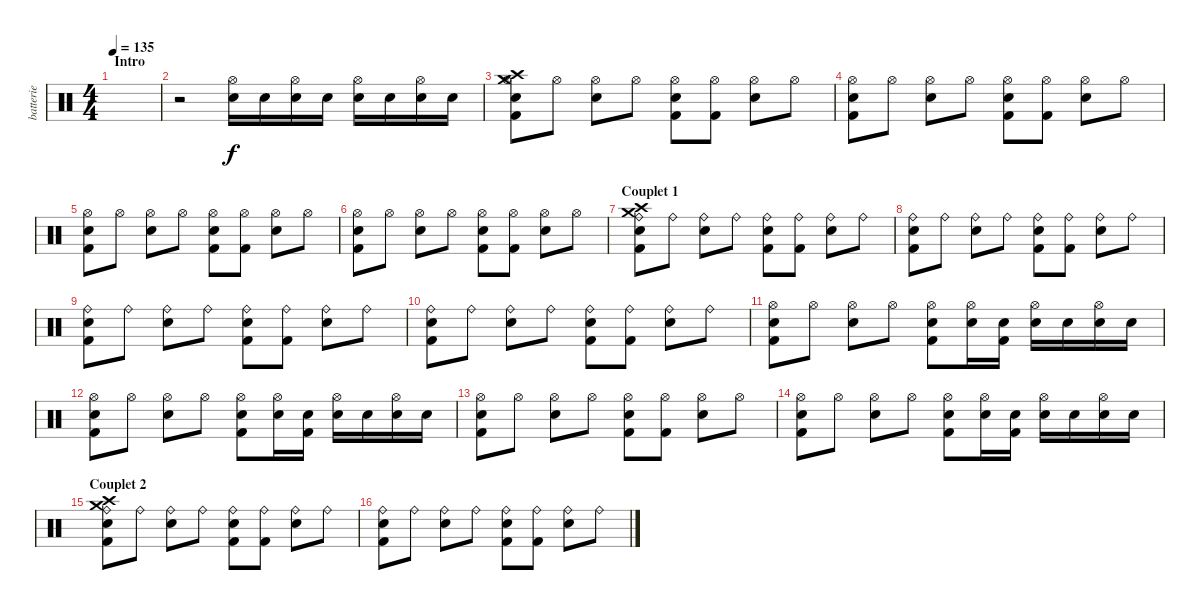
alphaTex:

\track ("batterie" "batterie") {instrument percussion}
\staff {score}
\articulation defaults
\ts (4 4)
\section ("" "Intro")
\tempo 135
\clef neutral
\ks c
|
r.2 ("Electric Snare (hit)" "Hi-Hat (open)").16 "Electric Snare (hit)".16 ("Electric Snare (hit)" "Hi-Hat (open)").16 "Electric Snare (hit)".16 ("Electric Snare (hit)" "Hi-Hat (open)").16 "Electric Snare (hit)".16 ("Electric Snare (hit)" "Hi-Hat (open)").16 "Electric Snare (hit)".16 |
("Kick (hit) 2" "Crash medium (hit)" "Electric Snare (hit)" "Crash high (hit)" "Hi-Hat (open)").8 "Hi-Hat (open)".8 ("Electric Snare (hit)" "Hi-Hat (open)").8 "Hi-Hat (open)".8 ("Kick (hit) 2" "Electric Snare (hit)" "Hi-Hat (open)").8 ("Kick (hit) 2" "Hi-Hat (open)").8 ("Electric Snare (hit)" "Hi-Hat (open)").8 "Hi-Hat (open)".8 |
("Kick (hit) 2" "Electric Snare (hit)" "Hi-Hat (open)").8 "Hi-Hat (open)".8 ("Electric Snare (hit)" "Hi-Hat (open)").8 "Hi-Hat (open)".8 ("Kick (hit) 2" "Electric Snare (hit)" "Hi-Hat (open)").8 ("Kick (hit) 2" "Hi-Hat (open)").8 ("Electric Snare (hit)" "Hi-Hat (open)").8 "Hi-Hat (open)".8 |
("Kick (hit) 2" "Electric Snare (hit)" "Hi-Hat (open)").8 "Hi-Hat (open)".8 ("Electric Snare (hit)" "Hi-Hat (open)").8 "Hi-Hat (open)".8 ("Kick (hit) 2" "Electric Snare (hit)" "Hi-Hat (open)").8 ("Kick (hit) 2" "Hi-Hat (open)").8 ("Electric Snare (hit)" "Hi-Hat (open)").8 "Hi-Hat (open)".8 |
("Kick (hit) 2" "Electric Snare (hit)" "Hi-Hat (open)").8 "Hi-Hat (open)".8 ("Electric Snare (hit)" "Hi-Hat (open)").8 "Hi-Hat (open)".8 ("Kick (hit) 2" "Electric Snare (hit)" "Hi-Hat (open)").8 ("Kick (hit) 2" "Hi-Hat (open)").8 ("Electric Snare (hit)" "Hi-Hat (open)").8 "Hi-Hat (open)".8 |
\section ("" "Couplet 1")
("Kick (hit) 2" "Crash medium (hit)" "Electric Snare (hit)" "Crash high (hit)" "Ride (bell)").8 "Ride (bell)".8 ("Electric Snare (hit)" "Ride (bell)").8 "Ride (bell)".8 ("Kick (hit) 2" "Electric Snare (hit)" "Ride (bell)").8 ("Kick (hit) 2" "Ride (bell)").8 ("Electric Snare (hit)" "Ride (bell)").8 "Ride (bell)".8 |
("Kick (hit) 2" "Electric Snare (hit)" "Ride (bell)").8 "Ride (bell)".8 ("Electric Snare (hit)" "Ride (bell)").8 "Ride (bell)".8 ("Kick (hit) 2" "Electric Snare (hit)" "Ride (bell)").8 ("Kick (hit) 2" "Ride (bell)").8 ("Electric Snare (hit)" "Ride (bell)").8 "Ride (bell)".8 |
("Kick (hit) 2" "Electric Snare (hit)" "Ride (bell)").8 "Ride (bell)".8 ("Electric Snare (hit)" "Ride (bell)").8 "Ride (bell)".8 ("Kick (hit) 2" "Electric Snare (hit)" "Ride (bell)").8 ("Kick (hit) 2" "Ride (bell)").8 ("Electric Snare (hit)" "Ride (bell)").8 "Ride (bell)".8 |
("Kick (hit) 2" "Electric Snare (hit)" "Ride (bell)").8 "Ride (bell)".8 ("Electric Snare (hit)" "Ride (bell)").8 "Ride (bell)".8 ("Kick (hit) 2" "Electric Snare (hit)" "Ride (bell)").8 ("Kick (hit) 2" "Ride (bell)").8 ("Electric Snare (hit)" "Ride (bell)").8 "Ride (bell)".8 |
("Kick (hit) 2" "Electric Snare (hit)" "Hi-Hat (open)").8 "Hi-Hat (open)".8 ("Electric Snare (hit)" "Hi-Hat (open)").8 "Hi-Hat (open)".8 ("Kick (hit) 2" "Electric Snare (hit)" "Hi-Hat (open)").8 ("Electric Snare (hit)" "Hi-Hat (open)").16 ("Kick (hit) 2" "Electric Snare (hit)").16 ("Electric Snare (hit)" "Hi-Hat (open)").16 "Electric Snare (hit)".16 ("Electric Snare (hit)" "Hi-Hat (open)").16 "Electric Snare (hit)".16 |
("Kick (hit) 2" "Electric Snare (hit)" "Hi-Hat (open)").8 "Hi-Hat (open)".8 ("Electric Snare (hit)" "Hi-Hat (open)").8 "Hi-Hat (open)".8 ("Kick (hit) 2" "Electric Snare (hit)" "Hi-Hat (open)").8 ("Electric Snare (hit)" "Hi-Hat (open)").16 ("Kick (hit) 2" "Electric Snare (hit)").16 ("Electric Snare (hit)" "Hi-Hat (open)").16 "Electric Snare (hit)".16 ("Electric Snare (hit)" "Hi-Hat (open)").16 "Electric Snare (hit)".16 |
("Kick (hit) 2" "Electric Snare (hit)" "Hi-Hat (open)").8 "Hi-Hat (open)".8 ("Electric Snare (hit)" "Hi-Hat (open)").8 "Hi-Hat (open)".8 ("Kick (hit) 2" "Electric Snare (hit)" "Hi-Hat (open)").8 ("Kick (hit) 2" "Hi-Hat (open)").8 ("Electric Snare (hit)" "Hi-Hat (open)").8 "Hi-Hat (open)".8 |
("Kick (hit) 2" "Electric Snare (hit)" "Hi-Hat (open)").8 "Hi-Hat (open)".8 ("Electric Snare (hit)" "Hi-Hat (open)").8 "Hi-Hat (open)".8 ("Kick (hit) 2" "Electric Snare (hit)" "Hi-Hat (open)").8 ("Electric Snare (hit)" "Hi-Hat (open)").16 ("Kick (hit) 2" "Electric Snare (hit)").16 ("Electric Snare (hit)" "Hi-Hat (open)").16 "Electric Snare (hit)".16 ("Electric Snare (hit)" "Hi-Hat (open)").16 "Electric Snare (hit)".16 |
\section ("" "Couplet 2")
("Kick (hit) 2" "Crash medium (hit)" "Electric Snare (hit)" "Crash high (hit)" "Ride (bell)").8 "Ride (bell)".8 ("Electric Snare (hit)" "Ride (bell)").8 "Ride (bell)".8 ("Kick (hit) 2" "Electric Snare (hit)" "Ride (bell)").8 ("Kick (hit) 2" "Ride (bell)").8 ("Electric Snare (hit)" "Ride (bell)").8 "Ride (bell)".8 |
("Kick (hit) 2" "Electric Snare (hit)" "Ride (bell)").8 "Ride (bell)".8 ("Electric Snare (hit)" "Ride (bell)").8 "Ride (bell)".8 ("Kick (hit) 2" "Electric Snare (hit)" "Ride (bell)").8 ("Kick (hit) 2" "Ride (bell)").8 ("Electric Snare (hit)" "Ride (bell)").8 "Ride (bell)".8
